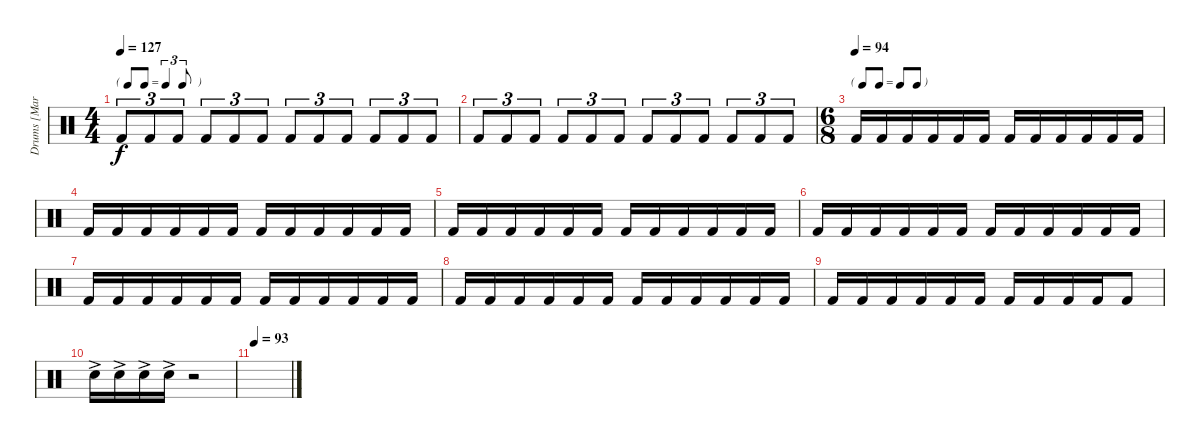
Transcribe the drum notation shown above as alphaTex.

\track ("Drums [Martin Lopez]" "Drums [Mar") {instrument percussion}
\staff {score}
\articulation defaults
\ts (4 4)
\tf triplet8th
\tempo 127
\clef neutral
\ks c "Kick (hit) 2".8{tu (3 2) dy f} "Kick (hit) 2".8{tu (3 2)} "Kick (hit) 2".8{tu (3 2)} "Kick (hit) 2".8{tu (3 2)} "Kick (hit) 2".8{tu (3 2)} "Kick (hit) 2".8{tu (3 2)} "Kick (hit) 2".8{tu (3 2)} "Kick (hit) 2".8{tu (3 2)} "Kick (hit) 2".8{tu (3 2)} "Kick (hit) 2".8{tu (3 2)} "Kick (hit) 2".8{tu (3 2)} "Kick (hit) 2".8{tu (3 2)}
|
"Kick (hit) 2".8{tu (3 2)} "Kick (hit) 2".8{tu (3 2)} "Kick (hit) 2".8{tu (3 2)} "Kick (hit) 2".8{tu (3 2)} "Kick (hit) 2".8{tu (3 2)} "Kick (hit) 2".8{tu (3 2)} "Kick (hit) 2".8{tu (3 2)} "Kick (hit) 2".8{tu (3 2)} "Kick (hit) 2".8{tu (3 2)} "Kick (hit) 2".8{tu (3 2)} "Kick (hit) 2".8{tu (3 2)} "Kick (hit) 2".8{tu (3 2)} |
\ts (6 8)
\tf none
\tempo (94)
"Kick (hit) 2".16 "Kick (hit) 2".16 "Kick (hit) 2".16 "Kick (hit) 2".16 "Kick (hit) 2".16 "Kick (hit) 2".16 "Kick (hit) 2".16 "Kick (hit) 2".16 "Kick (hit) 2".16 "Kick (hit) 2".16 "Kick (hit) 2".16 "Kick (hit) 2".16 |
"Kick (hit) 2".16 "Kick (hit) 2".16 "Kick (hit) 2".16 "Kick (hit) 2".16 "Kick (hit) 2".16 "Kick (hit) 2".16 "Kick (hit) 2".16 "Kick (hit) 2".16 "Kick (hit) 2".16 "Kick (hit) 2".16 "Kick (hit) 2".16 "Kick (hit) 2".16 |
"Kick (hit) 2".16 "Kick (hit) 2".16 "Kick (hit) 2".16 "Kick (hit) 2".16 "Kick (hit) 2".16 "Kick (hit) 2".16 "Kick (hit) 2".16 "Kick (hit) 2".16 "Kick (hit) 2".16 "Kick (hit) 2".16 "Kick (hit) 2".16 "Kick (hit) 2".16 |
"Kick (hit) 2".16 "Kick (hit) 2".16 "Kick (hit) 2".16 "Kick (hit) 2".16 "Kick (hit) 2".16 "Kick (hit) 2".16 "Kick (hit) 2".16 "Kick (hit) 2".16 "Kick (hit) 2".16 "Kick (hit) 2".16 "Kick (hit) 2".16 "Kick (hit) 2".16 |
"Kick (hit) 2".16 "Kick (hit) 2".16 "Kick (hit) 2".16 "Kick (hit) 2".16 "Kick (hit) 2".16 "Kick (hit) 2".16 "Kick (hit) 2".16 "Kick (hit) 2".16 "Kick (hit) 2".16 "Kick (hit) 2".16 "Kick (hit) 2".16 "Kick (hit) 2".16 |
"Kick (hit) 2".16 "Kick (hit) 2".16 "Kick (hit) 2".16 "Kick (hit) 2".16 "Kick (hit) 2".16 "Kick (hit) 2".16 "Kick (hit) 2".16 "Kick (hit) 2".16 "Kick (hit) 2".16 "Kick (hit) 2".16 "Kick (hit) 2".16 "Kick (hit) 2".16 |
"Kick (hit) 2".16 "Kick (hit) 2".16 "Kick (hit) 2".16 "Kick (hit) 2".16 "Kick (hit) 2".16 "Kick (hit) 2".16 "Kick (hit) 2".16 "Kick (hit) 2".16 "Kick (hit) 2".16 "Kick (hit) 2".16 "Kick (hit) 2".8 |
"Snare (hit) 2"{ac}.16 "Snare (hit) 2"{ac}.16 "Snare (hit) 2"{ac}.16 "Snare (hit) 2"{ac}.16 r.2 |
\tempo 93
